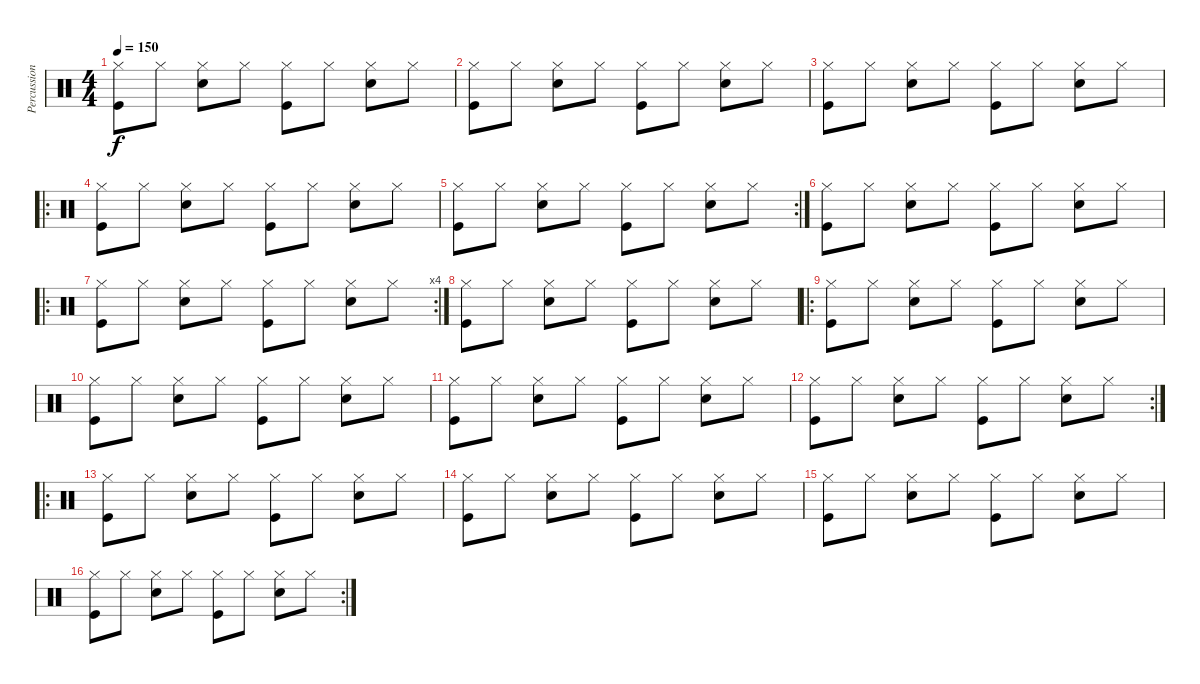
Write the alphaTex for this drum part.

\track ("Percussion" "Percussion") {instrument percussion}
\staff {score}
\articulation defaults
\ts (4 4)
\tempo 150
\clef neutral
\ks c
("Hi-Hat (closed)" "Kick (hit)").8{dy f} "Hi-Hat (closed)".8 ("Hi-Hat (closed)" "Snare (hit) 2").8 "Hi-Hat (closed)".8 ("Hi-Hat (closed)" "Kick (hit)").8 "Hi-Hat (closed)".8 ("Hi-Hat (closed)" "Snare (hit) 2").8 "Hi-Hat (closed)".8 |
("Hi-Hat (closed)" "Kick (hit)").8 "Hi-Hat (closed)".8 ("Hi-Hat (closed)" "Snare (hit) 2").8 "Hi-Hat (closed)".8 ("Hi-Hat (closed)" "Kick (hit)").8 "Hi-Hat (closed)".8 ("Hi-Hat (closed)" "Snare (hit) 2").8 "Hi-Hat (closed)".8 |
("Hi-Hat (closed)" "Kick (hit)").8 "Hi-Hat (closed)".8 ("Hi-Hat (closed)" "Snare (hit) 2").8 "Hi-Hat (closed)".8 ("Hi-Hat (closed)" "Kick (hit)").8 "Hi-Hat (closed)".8 ("Hi-Hat (closed)" "Snare (hit) 2").8 "Hi-Hat (closed)".8 |
\ro
("Hi-Hat (closed)" "Kick (hit)").8 "Hi-Hat (closed)".8 ("Hi-Hat (closed)" "Snare (hit) 2").8 "Hi-Hat (closed)".8 ("Hi-Hat (closed)" "Kick (hit)").8 "Hi-Hat (closed)".8 ("Hi-Hat (closed)" "Snare (hit) 2").8 "Hi-Hat (closed)".8 |
\rc 2
("Hi-Hat (closed)" "Kick (hit)").8 "Hi-Hat (closed)".8 ("Hi-Hat (closed)" "Snare (hit) 2").8 "Hi-Hat (closed)".8 ("Hi-Hat (closed)" "Kick (hit)").8 "Hi-Hat (closed)".8 ("Hi-Hat (closed)" "Snare (hit) 2").8 "Hi-Hat (closed)".8 |
("Hi-Hat (closed)" "Kick (hit)").8 "Hi-Hat (closed)".8 ("Hi-Hat (closed)" "Snare (hit) 2").8 "Hi-Hat (closed)".8 ("Hi-Hat (closed)" "Kick (hit)").8 "Hi-Hat (closed)".8 ("Hi-Hat (closed)" "Snare (hit) 2").8 "Hi-Hat (closed)".8 |
\ro
\rc 4
("Hi-Hat (closed)" "Kick (hit)").8 "Hi-Hat (closed)".8 ("Hi-Hat (closed)" "Snare (hit) 2").8 "Hi-Hat (closed)".8 ("Hi-Hat (closed)" "Kick (hit)").8 "Hi-Hat (closed)".8 ("Hi-Hat (closed)" "Snare (hit) 2").8 "Hi-Hat (closed)".8 |
("Hi-Hat (closed)" "Kick (hit)").8 "Hi-Hat (closed)".8 ("Hi-Hat (closed)" "Snare (hit) 2").8 "Hi-Hat (closed)".8 ("Hi-Hat (closed)" "Kick (hit)").8 "Hi-Hat (closed)".8 ("Hi-Hat (closed)" "Snare (hit) 2").8 "Hi-Hat (closed)".8 |
\ro
("Hi-Hat (closed)" "Kick (hit)").8 "Hi-Hat (closed)".8 ("Hi-Hat (closed)" "Snare (hit) 2").8 "Hi-Hat (closed)".8 ("Hi-Hat (closed)" "Kick (hit)").8 "Hi-Hat (closed)".8 ("Hi-Hat (closed)" "Snare (hit) 2").8 "Hi-Hat (closed)".8 |
("Hi-Hat (closed)" "Kick (hit)").8 "Hi-Hat (closed)".8 ("Hi-Hat (closed)" "Snare (hit) 2").8 "Hi-Hat (closed)".8 ("Hi-Hat (closed)" "Kick (hit)").8 "Hi-Hat (closed)".8 ("Hi-Hat (closed)" "Snare (hit) 2").8 "Hi-Hat (closed)".8 |
("Hi-Hat (closed)" "Kick (hit)").8 "Hi-Hat (closed)".8 ("Hi-Hat (closed)" "Snare (hit) 2").8 "Hi-Hat (closed)".8 ("Hi-Hat (closed)" "Kick (hit)").8 "Hi-Hat (closed)".8 ("Hi-Hat (closed)" "Snare (hit) 2").8 "Hi-Hat (closed)".8 |
\rc 2
("Hi-Hat (closed)" "Kick (hit)").8 "Hi-Hat (closed)".8 ("Hi-Hat (closed)" "Snare (hit) 2").8 "Hi-Hat (closed)".8 ("Hi-Hat (closed)" "Kick (hit)").8 "Hi-Hat (closed)".8 ("Hi-Hat (closed)" "Snare (hit) 2").8 "Hi-Hat (closed)".8 |
\ro
("Hi-Hat (closed)" "Kick (hit)").8 "Hi-Hat (closed)".8 ("Hi-Hat (closed)" "Snare (hit) 2").8 "Hi-Hat (closed)".8 ("Hi-Hat (closed)" "Kick (hit)").8 "Hi-Hat (closed)".8 ("Hi-Hat (closed)" "Snare (hit) 2").8 "Hi-Hat (closed)".8 |
("Hi-Hat (closed)" "Kick (hit)").8 "Hi-Hat (closed)".8 ("Hi-Hat (closed)" "Snare (hit) 2").8 "Hi-Hat (closed)".8 ("Hi-Hat (closed)" "Kick (hit)").8 "Hi-Hat (closed)".8 ("Hi-Hat (closed)" "Snare (hit) 2").8 "Hi-Hat (closed)".8 |
("Hi-Hat (closed)" "Kick (hit)").8 "Hi-Hat (closed)".8 ("Hi-Hat (closed)" "Snare (hit) 2").8 "Hi-Hat (closed)".8 ("Hi-Hat (closed)" "Kick (hit)").8 "Hi-Hat (closed)".8 ("Hi-Hat (closed)" "Snare (hit) 2").8 "Hi-Hat (closed)".8 |
\rc 2
("Hi-Hat (closed)" "Kick (hit)").8 "Hi-Hat (closed)".8 ("Hi-Hat (closed)" "Snare (hit) 2").8 "Hi-Hat (closed)".8 ("Hi-Hat (closed)" "Kick (hit)").8 "Hi-Hat (closed)".8 ("Hi-Hat (closed)" "Snare (hit) 2").8 "Hi-Hat (closed)".8
